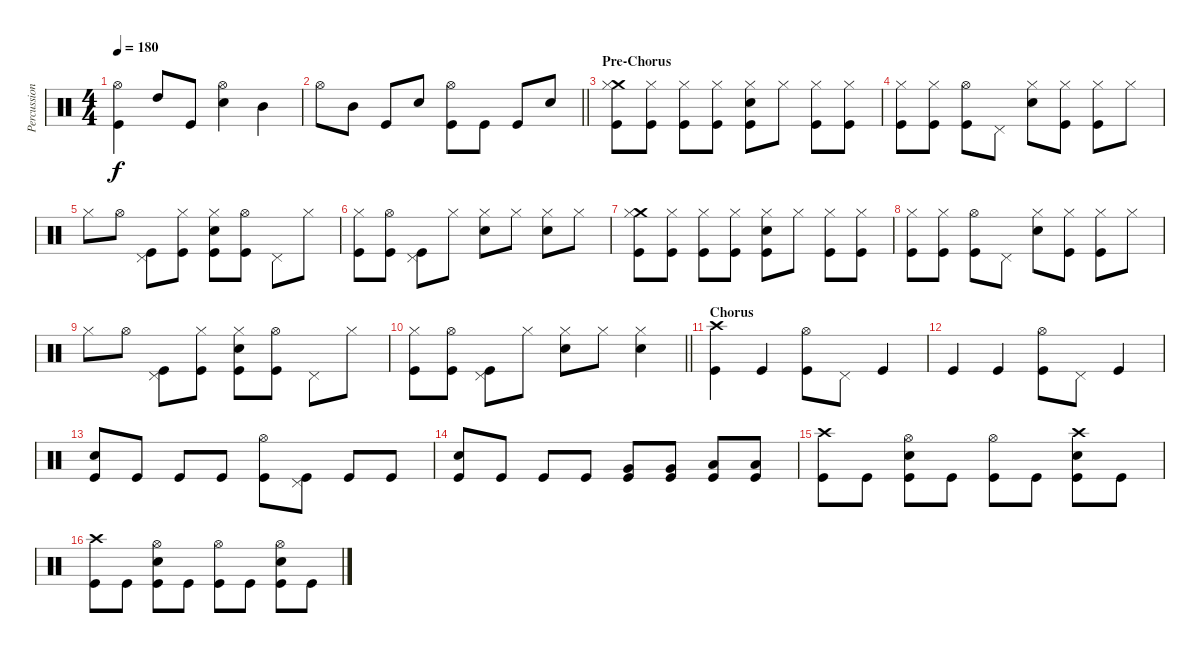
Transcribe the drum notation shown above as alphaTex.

\track ("Percussion" "Percussion") {instrument percussion}
\staff {score}
\articulation defaults
\ts (4 4)
\tempo 180
\clef neutral
\ks c
("Hi-Hat (open)" "Kick (hit)").4{dy f} "High Tom (hit)".8 "Kick (hit)".8 ("Hi-Hat (open)" "Electric Snare (hit)").4 "Mid Tom (hit)".4 |
\barLineRight lightlight "Hi-Hat (open)".8 "Mid Tom (hit)".8 "Kick (hit)".8 "Electric Snare (hit)".8
("Hi-Hat (open)" "Kick (hit)").8 "Kick (hit)".8 "Kick (hit)".8 "Electric Snare (hit)".8 |
\section ("" "Pre-Chorus")
("Crash medium (hit)" "Hi-Hat (closed)" "Kick (hit)").8 ("Hi-Hat (closed)" "Kick (hit)").8 ("Hi-Hat (closed)" "Kick (hit)").8 ("Hi-Hat (closed)" "Kick (hit)").8 ("Hi-Hat (closed)" "Electric Snare (hit)" "Kick (hit)").8 "Hi-Hat (closed)".8 ("Hi-Hat (closed)" "Kick (hit)").8 ("Hi-Hat (closed)" "Kick (hit)").8 |
("Hi-Hat (closed)" "Kick (hit)").8 ("Hi-Hat (closed)" "Kick (hit)").8 ("Hi-Hat (open)" "Kick (hit)").8 "Pedal Hi-Hat (hit)".8 ("Hi-Hat (closed)" "Electric Snare (hit)").8 ("Hi-Hat (closed)" "Kick (hit)").8 ("Hi-Hat (closed)" "Kick (hit)").8 "Hi-Hat (closed)".8 |
"Hi-Hat (closed)".8 "Hi-Hat (open)".8 ("Pedal Hi-Hat (hit)" "Kick (hit)").8 ("Hi-Hat (closed)" "Kick (hit)").8 ("Hi-Hat (closed)" "Electric Snare (hit)" "Kick (hit)").8 ("Hi-Hat (open)" "Kick (hit)").8 "Pedal Hi-Hat (hit)".8 "Hi-Hat (closed)".8 |
("Hi-Hat (closed)" "Kick (hit)").8 ("Hi-Hat (open)" "Kick (hit)").8 ("Pedal Hi-Hat (hit)" "Kick (hit)").8 "Hi-Hat (closed)".8 ("Hi-Hat (closed)" "Electric Snare (hit)").8 "Hi-Hat (closed)".8 ("Hi-Hat (closed)" "Electric Snare (hit)").8 "Hi-Hat (closed)".8 |
("Crash medium (hit)" "Hi-Hat (closed)" "Kick (hit)").8 ("Hi-Hat (closed)" "Kick (hit)").8 ("Hi-Hat (closed)" "Kick (hit)").8 ("Hi-Hat (closed)" "Kick (hit)").8 ("Hi-Hat (closed)" "Electric Snare (hit)" "Kick (hit)").8 "Hi-Hat (closed)".8 ("Hi-Hat (closed)" "Kick (hit)").8 ("Hi-Hat (closed)" "Kick (hit)").8 |
("Hi-Hat (closed)" "Kick (hit)").8 ("Hi-Hat (closed)" "Kick (hit)").8 ("Hi-Hat (open)" "Kick (hit)").8 "Pedal Hi-Hat (hit)".8 ("Hi-Hat (closed)" "Electric Snare (hit)").8 ("Hi-Hat (closed)" "Kick (hit)").8 ("Hi-Hat (closed)" "Kick (hit)").8 "Hi-Hat (closed)".8 |
"Hi-Hat (closed)".8 "Hi-Hat (open)".8 ("Pedal Hi-Hat (hit)" "Kick (hit)").8 ("Hi-Hat (closed)" "Kick (hit)").8 ("Hi-Hat (closed)" "Electric Snare (hit)" "Kick (hit)").8 ("Hi-Hat (open)" "Kick (hit)").8 "Pedal Hi-Hat (hit)".8 "Hi-Hat (closed)".8 |
\barLineRight lightlight
("Hi-Hat (closed)" "Kick (hit)").8 ("Hi-Hat (open)" "Kick (hit)").8 ("Pedal Hi-Hat (hit)" "Kick (hit)").8 "Hi-Hat (closed)".8 ("Hi-Hat (closed)" "Electric Snare (hit)").8 "Hi-Hat (closed)".8 ("Hi-Hat (closed)" "Electric Snare (hit)").4 |
\section ("" "Chorus")
("Crash high (hit)" "Kick (hit)").4 "Kick (hit)".4 ("Hi-Hat (open)" "Kick (hit)").8 "Pedal Hi-Hat (hit)".8 "Kick (hit)".4 |
"Kick (hit)".4 "Kick (hit)".4 ("Hi-Hat (open)" "Kick (hit)").8 "Pedal Hi-Hat (hit)".8 "Kick (hit)".4 |
("Electric Snare (hit)" "Kick (hit)").8 "Kick (hit)".8 "Kick (hit)".8 "Kick (hit)".8 ("Hi-Hat (open)" "Kick (hit)").8 ("Pedal Hi-Hat (hit)" "Kick (hit)").8 "Kick (hit)".8 "Kick (hit)".8 |
("Electric Snare (hit)" "Kick (hit)").8 "Kick (hit)".8 "Kick (hit)".8 "Kick (hit)".8 ("Very Low Tom (hit)" "Kick (hit)").8 ("Very Low Tom (hit)" "Kick (hit)").8 ("Low Floor Tom (hit)" "Kick (hit)").8 ("Low Floor Tom (hit)" "Kick (hit)").8 |
("Crash high (hit)" "Kick (hit)").8 "Kick (hit)".8 ("Hi-Hat (open)" "Electric Snare (hit)" "Kick (hit)").8 "Kick (hit)".8 ("Hi-Hat (open)" "Kick (hit)").8 "Kick (hit)".8 ("Crash high (hit)" "Electric Snare (hit)" "Kick (hit)").8 "Kick (hit)".8 |
("Crash high (hit)" "Kick (hit)").8 "Kick (hit)".8 ("Hi-Hat (open)" "Electric Snare (hit)" "Kick (hit)").8 "Kick (hit)".8 ("Hi-Hat (open)" "Kick (hit)").8 "Kick (hit)".8 ("Hi-Hat (open)" "Electric Snare (hit)" "Kick (hit)").8 "Kick (hit)".8
